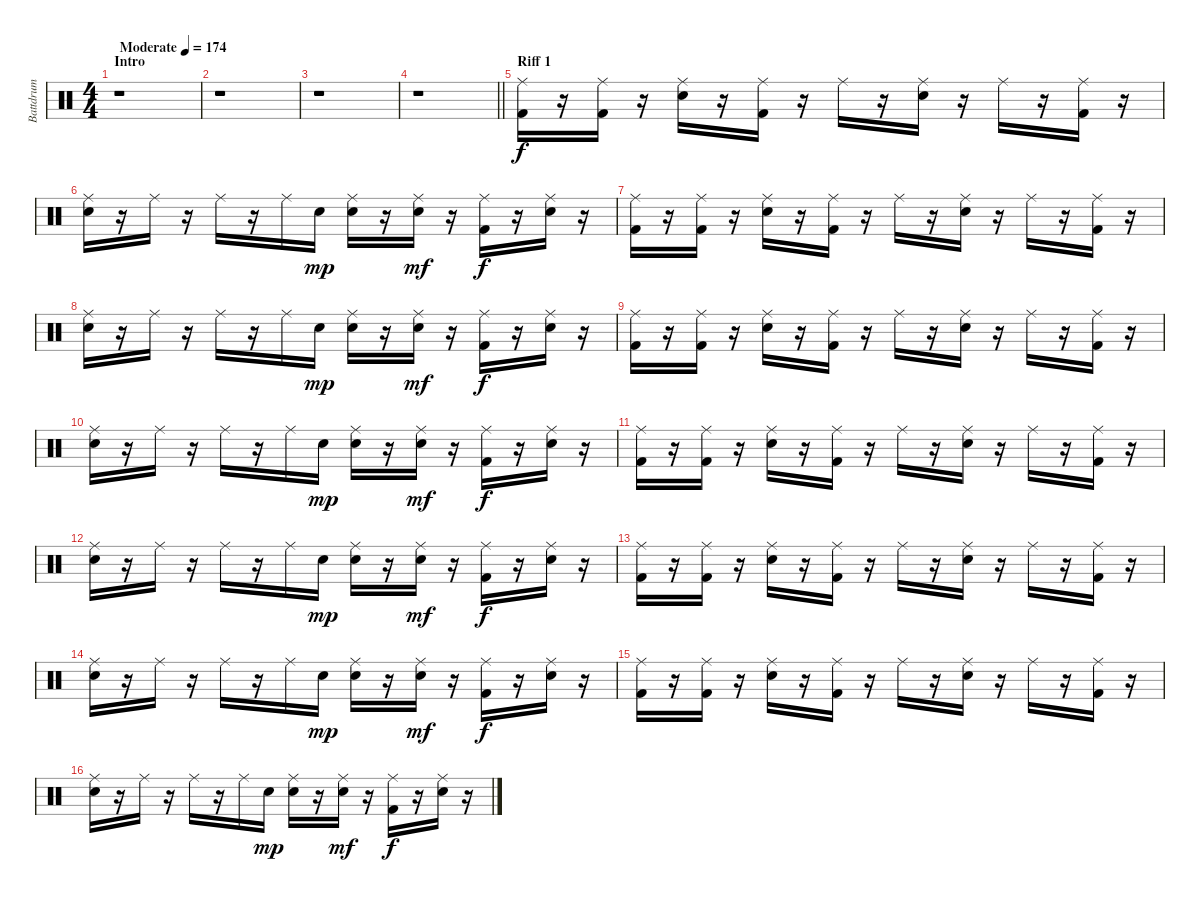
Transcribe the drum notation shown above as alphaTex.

\track ("Battdrum" "Battdrum") {instrument percussion}
\staff {score}
\articulation defaults
\ts (4 4)
\section ("" "Intro")
\tempo (174 "Moderate")
\clef neutral
\ks c
r.1{dy f} |
r.1 |
r.1 |
\barLineRight lightlight
r.1 |
\section ("" "Riff 1")
("Kick (hit) 2" "Ride (middle)").16 r.16 ("Kick (hit) 2" "Ride (middle)").16 r.16 ("Snare (hit) 2" "Ride (middle)").16 r.16 ("Kick (hit) 2" "Ride (middle)").16 r.16 "Ride (middle)".16 r.16 ("Snare (hit) 2" "Ride (middle)").16 r.16 "Ride (middle)".16 r.16 ("Kick (hit) 2" "Ride (middle)").16 r.16 |
("Snare (hit) 2" "Ride (middle)").16 r.16 "Ride (middle)".16 r.16 "Ride (middle)".16 r.16 "Ride (middle)".16 "Snare (hit) 2".16{dy mp} ("Snare (hit) 2" "Ride (middle)").16 r.16 ("Snare (hit) 2" "Ride (middle)").16{dy mf} r.16 ("Kick (hit) 2" "Ride (middle)").16{dy f} r.16 ("Snare (hit) 2" "Ride (middle)").16 r.16 |
("Kick (hit) 2" "Ride (middle)").16 r.16 ("Kick (hit) 2" "Ride (middle)").16 r.16 ("Snare (hit) 2" "Ride (middle)").16 r.16 ("Kick (hit) 2" "Ride (middle)").16 r.16 "Ride (middle)".16 r.16 ("Snare (hit) 2" "Ride (middle)").16 r.16 "Ride (middle)".16 r.16 ("Kick (hit) 2" "Ride (middle)").16 r.16 |
("Snare (hit) 2" "Ride (middle)").16 r.16 "Ride (middle)".16 r.16 "Ride (middle)".16 r.16 "Ride (middle)".16 "Snare (hit) 2".16{dy mp} ("Snare (hit) 2" "Ride (middle)").16 r.16 ("Snare (hit) 2" "Ride (middle)").16{dy mf} r.16 ("Kick (hit) 2" "Ride (middle)").16{dy f} r.16 ("Snare (hit) 2" "Ride (middle)").16 r.16 |
("Kick (hit) 2" "Ride (middle)").16 r.16 ("Kick (hit) 2" "Ride (middle)").16 r.16 ("Snare (hit) 2" "Ride (middle)").16 r.16 ("Kick (hit) 2" "Ride (middle)").16 r.16 "Ride (middle)".16 r.16 ("Snare (hit) 2" "Ride (middle)").16 r.16 "Ride (middle)".16 r.16 ("Kick (hit) 2" "Ride (middle)").16 r.16 |
("Snare (hit) 2" "Ride (middle)").16 r.16 "Ride (middle)".16 r.16 "Ride (middle)".16 r.16 "Ride (middle)".16 "Snare (hit) 2".16{dy mp} ("Snare (hit) 2" "Ride (middle)").16 r.16 ("Snare (hit) 2" "Ride (middle)").16{dy mf} r.16 ("Kick (hit) 2" "Ride (middle)").16{dy f} r.16 ("Snare (hit) 2" "Ride (middle)").16 r.16 |
("Kick (hit) 2" "Ride (middle)").16 r.16 ("Kick (hit) 2" "Ride (middle)").16 r.16 ("Snare (hit) 2" "Ride (middle)").16 r.16 ("Kick (hit) 2" "Ride (middle)").16 r.16 "Ride (middle)".16 r.16 ("Snare (hit) 2" "Ride (middle)").16 r.16 "Ride (middle)".16 r.16 ("Kick (hit) 2" "Ride (middle)").16 r.16 |
("Snare (hit) 2" "Ride (middle)").16 r.16 "Ride (middle)".16 r.16 "Ride (middle)".16 r.16 "Ride (middle)".16 "Snare (hit) 2".16{dy mp} ("Snare (hit) 2" "Ride (middle)").16 r.16 ("Snare (hit) 2" "Ride (middle)").16{dy mf} r.16 ("Kick (hit) 2" "Ride (middle)").16{dy f} r.16 ("Snare (hit) 2" "Ride (middle)").16 r.16 |
("Kick (hit) 2" "Ride (middle)").16 r.16 ("Kick (hit) 2" "Ride (middle)").16 r.16 ("Snare (hit) 2" "Ride (middle)").16 r.16 ("Kick (hit) 2" "Ride (middle)").16 r.16 "Ride (middle)".16 r.16 ("Snare (hit) 2" "Ride (middle)").16 r.16 "Ride (middle)".16 r.16 ("Kick (hit) 2" "Ride (middle)").16 r.16 |
("Snare (hit) 2" "Ride (middle)").16 r.16 "Ride (middle)".16 r.16 "Ride (middle)".16 r.16 "Ride (middle)".16 "Snare (hit) 2".16{dy mp} ("Snare (hit) 2" "Ride (middle)").16 r.16 ("Snare (hit) 2" "Ride (middle)").16{dy mf} r.16 ("Kick (hit) 2" "Ride (middle)").16{dy f} r.16 ("Snare (hit) 2" "Ride (middle)").16 r.16 |
("Kick (hit) 2" "Ride (middle)").16 r.16 ("Kick (hit) 2" "Ride (middle)").16 r.16 ("Snare (hit) 2" "Ride (middle)").16 r.16 ("Kick (hit) 2" "Ride (middle)").16 r.16 "Ride (middle)".16 r.16 ("Snare (hit) 2" "Ride (middle)").16 r.16 "Ride (middle)".16 r.16 ("Kick (hit) 2" "Ride (middle)").16 r.16 |
("Snare (hit) 2" "Ride (middle)").16 r.16 "Ride (middle)".16 r.16 "Ride (middle)".16 r.16 "Ride (middle)".16 "Snare (hit) 2".16{dy mp} ("Snare (hit) 2" "Ride (middle)").16 r.16 ("Snare (hit) 2" "Ride (middle)").16{dy mf} r.16 ("Kick (hit) 2" "Ride (middle)").16{dy f} r.16 ("Snare (hit) 2" "Ride (middle)").16 r.16
